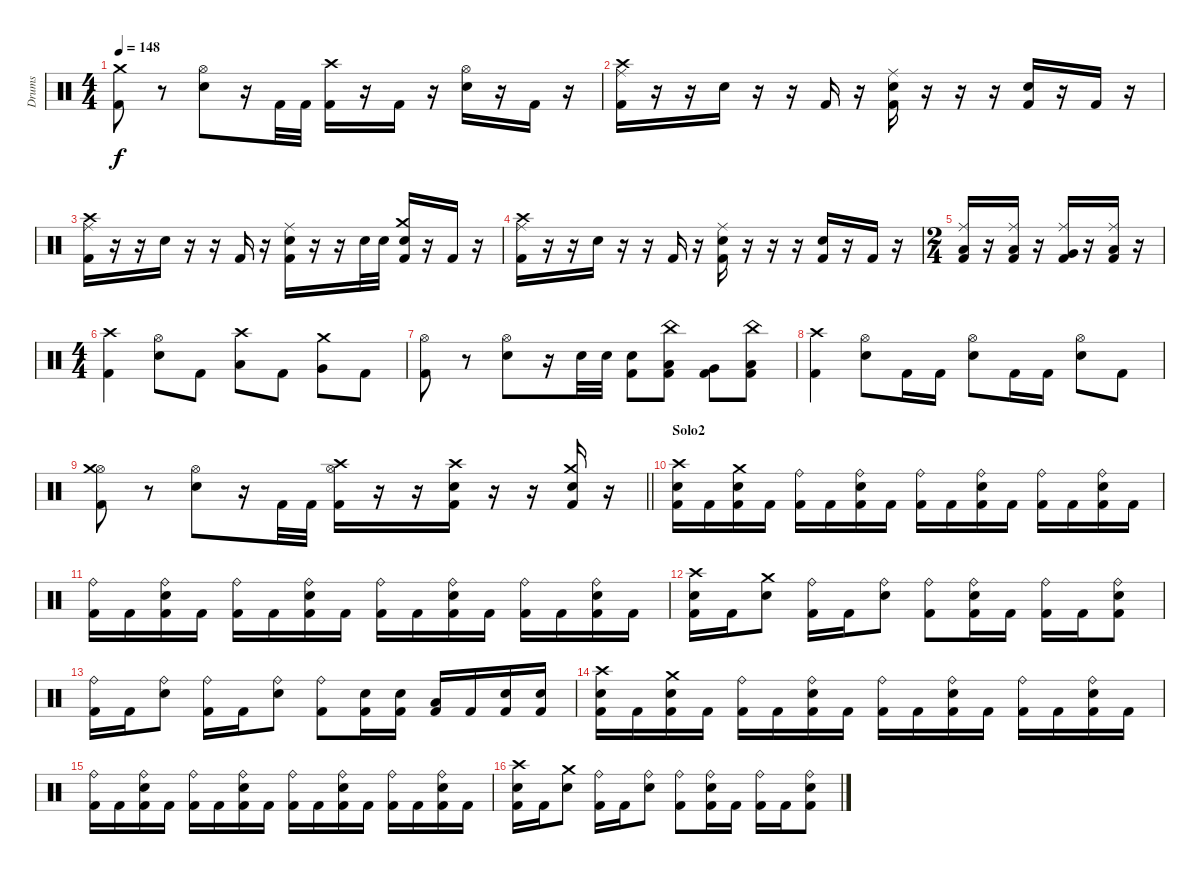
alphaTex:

\track ("Drums" "Drums") {instrument percussion}
\staff {score}
\articulation defaults
\ts (4 4)
\tempo 148
\clef neutral
\ks c
("Kick (hit) 2" "Crash medium (hit)").8{dy f} r.8 ("Electric Snare (hit)" "Hi-Hat (open)").8 r.16 "Kick (hit) 2".32 "Kick (hit) 2".32 ("Kick (hit) 2" "Crash high (hit)").16 r.16 "Kick (hit) 2".16 r.16 ("Electric Snare (hit)" "Hi-Hat (open)").16 r.16 "Kick (hit) 2".16 r.16 |
("Kick (hit) 2" "Ride (middle)" "Crash high (hit)").16 r.16 r.16 "Electric Snare (hit)".16 r.16 r.16 "Kick (hit) 2".16 r.16 ("Kick (hit) 2" "Electric Snare (hit)" "Ride (middle)").16 r.16 r.16 r.16 ("Kick (hit) 2" "Electric Snare (hit)").16 r.16 "Kick (hit) 2".16 r.16 |
("Kick (hit) 2" "Ride (middle)" "Crash high (hit)").16 r.16 r.16 "Electric Snare (hit)".16 r.16 r.16 "Kick (hit) 2".16 r.16 ("Kick (hit) 2" "Electric Snare (hit)" "Ride (middle)").16 r.16 r.16 "Electric Snare (hit)".32 "Electric Snare (hit)".32 ("Kick (hit) 2" "Electric Snare (hit)" "Crash medium (hit)").16 r.16 "Kick (hit) 2".16 r.16 |
("Kick (hit) 2" "Ride (middle)" "Crash high (hit)").16 r.16 r.16 "Electric Snare (hit)".16 r.16 r.16 "Kick (hit) 2".16 r.16 ("Kick (hit) 2" "Electric Snare (hit)" "Ride (middle)").16 r.16 r.16 r.16 ("Kick (hit) 2" "Electric Snare (hit)").16 r.16 "Kick (hit) 2".16 r.16 |
\ts (2 4)
("Kick (hit) 2" "Low Tom (hit)" "Ride (middle)").16 r.16 ("Kick (hit) 2" "Low Tom (hit)" "Ride (middle)").16 r.16 ("Kick (hit) 2" "Very Low Tom (hit)" "Ride (middle)").16 r.16 ("Kick (hit) 2" "Low Floor Tom (hit)" "Ride (middle)").16 r.16 |
\ts (4 4)
("Kick (hit) 2" "Crash high (hit)").4 ("Electric Snare (hit)" "Hi-Hat (open)").8 "Kick (hit) 2".8 ("Low Tom (hit)" "Crash high (hit)").8 "Kick (hit) 2".8 ("Very Low Tom (hit)" "Crash medium (hit)").8 "Kick (hit) 2".8 |
("Kick (hit) 2" "Hi-Hat (open)").8 r.8 ("Electric Snare (hit)" "Hi-Hat (open)").8 r.16 "Electric Snare (hit)".32 "Electric Snare (hit)".32 ("Kick (hit) 2" "Electric Snare (hit)").8 ("Kick (hit) 2" "Low Tom (hit)" "China (hit)").8 ("Kick (hit) 2" "Very Low Tom (hit)").8 ("Kick (hit) 2" "Low Floor Tom (hit)" "China (hit)").8 |
("Kick (hit) 2" "Crash high (hit)").4 ("Electric Snare (hit)" "Hi-Hat (open)").8 "Kick (hit) 2".16 "Kick (hit) 2".16 ("Electric Snare (hit)" "Hi-Hat (open)").8 "Kick (hit) 2".16 "Kick (hit) 2".16 ("Electric Snare (hit)" "Hi-Hat (open)").8 "Kick (hit) 2".8 |
\barLineRight lightlight
("Kick (hit) 2" "Hi-Hat (open)" "Crash medium (hit)").8 r.8 ("Electric Snare (hit)" "Hi-Hat (open)").8 r.16 "Kick (hit) 2".32 "Kick (hit) 2".32 ("Kick (hit) 2" "Hi-Hat (open)" "Crash high (hit)").16 r.16 r.16 ("Kick (hit) 2" "Electric Snare (hit)" "Crash high (hit)").16 r.16 r.16 ("Kick (hit) 2" "Electric Snare (hit)" "Crash medium (hit)").16 r.16 |
\section ("" "Solo2")
("Kick (hit) 2" "Electric Snare (hit)" "Crash high (hit)").16 "Kick (hit) 2".16 ("Kick (hit) 2" "Electric Snare (hit)" "Crash medium (hit)").16 "Kick (hit) 2".16 ("Kick (hit) 2" "Ride (bell)").16 "Kick (hit) 2".16 ("Kick (hit) 2" "Electric Snare (hit)" "Ride (bell)").16 "Kick (hit) 2".16 ("Kick (hit) 2" "Ride (bell)").16 "Kick (hit) 2".16 ("Kick (hit) 2" "Electric Snare (hit)" "Ride (bell)").16 "Kick (hit) 2".16 ("Kick (hit) 2" "Ride (bell)").16 "Kick (hit) 2".16 ("Kick (hit) 2" "Electric Snare (hit)" "Ride (bell)").16 "Kick (hit) 2".16 |
("Kick (hit) 2" "Ride (bell)").16 "Kick (hit) 2".16 ("Kick (hit) 2" "Electric Snare (hit)" "Ride (bell)").16 "Kick (hit) 2".16 ("Kick (hit) 2" "Ride (bell)").16 "Kick (hit) 2".16 ("Kick (hit) 2" "Electric Snare (hit)" "Ride (bell)").16 "Kick (hit) 2".16 ("Kick (hit) 2" "Ride (bell)").16 "Kick (hit) 2".16 ("Kick (hit) 2" "Electric Snare (hit)" "Ride (bell)").16 "Kick (hit) 2".16 ("Kick (hit) 2" "Ride (bell)").16 "Kick (hit) 2".16 ("Kick (hit) 2" "Electric Snare (hit)" "Ride (bell)").16 "Kick (hit) 2".16 |
("Kick (hit) 2" "Electric Snare (hit)" "Crash high (hit)").16 "Kick (hit) 2".16 ("Electric Snare (hit)" "Crash medium (hit)").8 ("Kick (hit) 2" "Ride (bell)").16 "Kick (hit) 2".16 ("Electric Snare (hit)" "Ride (bell)").8 ("Kick (hit) 2" "Ride (bell)").8 ("Kick (hit) 2" "Electric Snare (hit)" "Ride (bell)").16 "Kick (hit) 2".16 ("Kick (hit) 2" "Ride (bell)").16 "Kick (hit) 2".16 ("Kick (hit) 2" "Electric Snare (hit)" "Ride (bell)").8 |
("Kick (hit) 2" "Ride (bell)").16 "Kick (hit) 2".16 ("Electric Snare (hit)" "Ride (bell)").8 ("Kick (hit) 2" "Ride (bell)").16 "Kick (hit) 2".16 ("Electric Snare (hit)" "Ride (bell)").8 ("Kick (hit) 2" "Ride (bell)").8 ("Kick (hit) 2" "Electric Snare (hit)").16 ("Kick (hit) 2" "Electric Snare (hit)").16 ("Kick (hit) 2" "Low Tom (hit)").16 "Kick (hit) 2".16 ("Kick (hit) 2" "Electric Snare (hit)").16 ("Kick (hit) 2" "Electric Snare (hit)").16 |
("Kick (hit) 2" "Electric Snare (hit)" "Crash high (hit)").16 "Kick (hit) 2".16 ("Kick (hit) 2" "Electric Snare (hit)" "Crash medium (hit)").16 "Kick (hit) 2".16 ("Kick (hit) 2" "Ride (bell)").16 "Kick (hit) 2".16 ("Kick (hit) 2" "Electric Snare (hit)" "Ride (bell)").16 "Kick (hit) 2".16 ("Kick (hit) 2" "Ride (bell)").16 "Kick (hit) 2".16 ("Kick (hit) 2" "Electric Snare (hit)" "Ride (bell)").16 "Kick (hit) 2".16 ("Kick (hit) 2" "Ride (bell)").16 "Kick (hit) 2".16 ("Kick (hit) 2" "Electric Snare (hit)" "Ride (bell)").16 "Kick (hit) 2".16 |
("Kick (hit) 2" "Ride (bell)").16 "Kick (hit) 2".16 ("Kick (hit) 2" "Electric Snare (hit)" "Ride (bell)").16 "Kick (hit) 2".16 ("Kick (hit) 2" "Ride (bell)").16 "Kick (hit) 2".16 ("Kick (hit) 2" "Electric Snare (hit)" "Ride (bell)").16 "Kick (hit) 2".16 ("Kick (hit) 2" "Ride (bell)").16 "Kick (hit) 2".16 ("Kick (hit) 2" "Electric Snare (hit)" "Ride (bell)").16 "Kick (hit) 2".16 ("Kick (hit) 2" "Ride (bell)").16 "Kick (hit) 2".16 ("Kick (hit) 2" "Electric Snare (hit)" "Ride (bell)").16 "Kick (hit) 2".16 |
("Kick (hit) 2" "Electric Snare (hit)" "Crash high (hit)").16 "Kick (hit) 2".16 ("Electric Snare (hit)" "Crash medium (hit)").8 ("Kick (hit) 2" "Ride (bell)").16 "Kick (hit) 2".16 ("Electric Snare (hit)" "Ride (bell)").8 ("Kick (hit) 2" "Ride (bell)").8 ("Kick (hit) 2" "Electric Snare (hit)" "Ride (bell)").16 "Kick (hit) 2".16 ("Kick (hit) 2" "Ride (bell)").16 "Kick (hit) 2".16 ("Kick (hit) 2" "Electric Snare (hit)" "Ride (bell)").8
